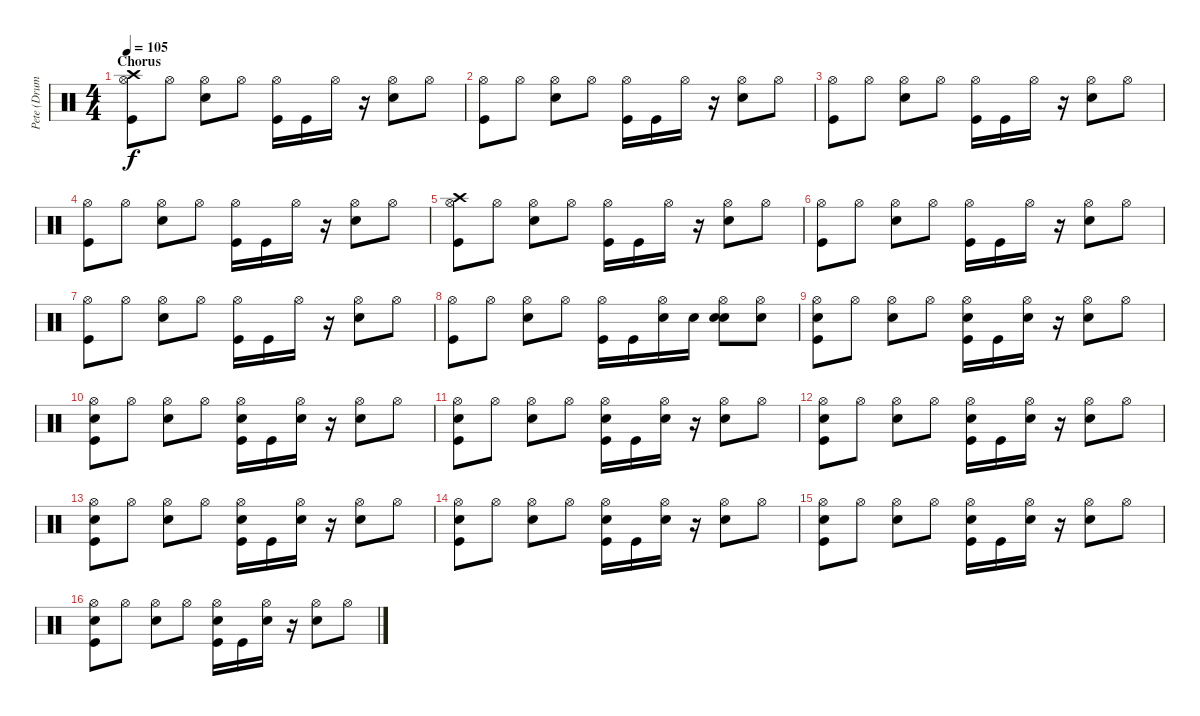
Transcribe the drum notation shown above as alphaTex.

\track ("Pete (Drums)" "Pete (Drum") {instrument percussion}
\staff {score}
\articulation defaults
\ts (4 4)
\section ("" "Chorus")
\tempo 105
\clef neutral
\ks c
("Hi-Hat (open)" "Crash high (hit)" "Kick (hit)").8{dy f} "Hi-Hat (open)".8 ("Hi-Hat (open)" "Snare (hit) 2").8 "Hi-Hat (open)".8 ("Hi-Hat (open)" "Kick (hit)").16 "Kick (hit)".16 "Hi-Hat (open)".16 r.16 ("Hi-Hat (open)" "Snare (hit) 2").8 "Hi-Hat (open)".8 |
("Hi-Hat (open)" "Kick (hit)").8 "Hi-Hat (open)".8 ("Hi-Hat (open)" "Snare (hit) 2").8 "Hi-Hat (open)".8 ("Hi-Hat (open)" "Kick (hit)").16 "Kick (hit)".16 "Hi-Hat (open)".16 r.16 ("Hi-Hat (open)" "Snare (hit) 2").8 "Hi-Hat (open)".8 |
("Hi-Hat (open)" "Kick (hit)").8 "Hi-Hat (open)".8 ("Hi-Hat (open)" "Snare (hit) 2").8 "Hi-Hat (open)".8 ("Hi-Hat (open)" "Kick (hit)").16 "Kick (hit)".16 "Hi-Hat (open)".16 r.16 ("Hi-Hat (open)" "Snare (hit) 2").8 "Hi-Hat (open)".8 |
("Hi-Hat (open)" "Kick (hit)").8 "Hi-Hat (open)".8 ("Hi-Hat (open)" "Snare (hit) 2").8 "Hi-Hat (open)".8 ("Hi-Hat (open)" "Kick (hit)").16 "Kick (hit)".16 "Hi-Hat (open)".16 r.16 ("Hi-Hat (open)" "Snare (hit) 2").8 "Hi-Hat (open)".8 |
("Hi-Hat (open)" "Crash high (hit)" "Kick (hit)").8 "Hi-Hat (open)".8 ("Hi-Hat (open)" "Snare (hit) 2").8 "Hi-Hat (open)".8 ("Hi-Hat (open)" "Kick (hit)").16 "Kick (hit)".16 "Hi-Hat (open)".16 r.16 ("Hi-Hat (open)" "Snare (hit) 2").8 "Hi-Hat (open)".8 |
("Hi-Hat (open)" "Kick (hit)").8 "Hi-Hat (open)".8 ("Hi-Hat (open)" "Snare (hit) 2").8 "Hi-Hat (open)".8 ("Hi-Hat (open)" "Kick (hit)").16 "Kick (hit)".16 "Hi-Hat (open)".16 r.16 ("Hi-Hat (open)" "Snare (hit) 2").8 "Hi-Hat (open)".8 |
("Hi-Hat (open)" "Kick (hit)").8 "Hi-Hat (open)".8 ("Hi-Hat (open)" "Snare (hit) 2").8 "Hi-Hat (open)".8 ("Hi-Hat (open)" "Kick (hit)").16 "Kick (hit)".16 "Hi-Hat (open)".16 r.16 ("Hi-Hat (open)" "Snare (hit) 2").8 "Hi-Hat (open)".8 |
("Hi-Hat (open)" "Kick (hit)").8 "Hi-Hat (open)".8 ("Hi-Hat (open)" "Snare (hit) 2").8 "Hi-Hat (open)".8 ("Hi-Hat (open)" "Kick (hit)").16 "Kick (hit)".16 ("Hi-Hat (open)" "Snare (hit) 2").16 "Snare (hit) 2".16 ("Hi-Hat (open)" "Snare (hit) 2" "Snare (hit) 2").8 ("Hi-Hat (open)" "Snare (hit) 2").8 |
("Hi-Hat (open)" "Snare (hit) 2" "Kick (hit)").8 "Hi-Hat (open)".8 ("Hi-Hat (open)" "Snare (hit) 2").8 "Hi-Hat (open)".8 ("Hi-Hat (open)" "Snare (hit) 2" "Kick (hit)").16 "Kick (hit)".16 ("Hi-Hat (open)" "Snare (hit) 2").16 r.16 ("Hi-Hat (open)" "Snare (hit) 2").8 "Hi-Hat (open)".8 |
("Hi-Hat (open)" "Snare (hit) 2" "Kick (hit)").8 "Hi-Hat (open)".8 ("Hi-Hat (open)" "Snare (hit) 2").8 "Hi-Hat (open)".8 ("Hi-Hat (open)" "Snare (hit) 2" "Kick (hit)").16 "Kick (hit)".16 ("Hi-Hat (open)" "Snare (hit) 2").16 r.16 ("Hi-Hat (open)" "Snare (hit) 2").8 "Hi-Hat (open)".8 |
("Hi-Hat (open)" "Snare (hit) 2" "Kick (hit)").8 "Hi-Hat (open)".8 ("Hi-Hat (open)" "Snare (hit) 2").8 "Hi-Hat (open)".8 ("Hi-Hat (open)" "Snare (hit) 2" "Kick (hit)").16 "Kick (hit)".16 ("Hi-Hat (open)" "Snare (hit) 2").16 r.16 ("Hi-Hat (open)" "Snare (hit) 2").8 "Hi-Hat (open)".8 |
("Hi-Hat (open)" "Snare (hit) 2" "Kick (hit)").8 "Hi-Hat (open)".8 ("Hi-Hat (open)" "Snare (hit) 2").8 "Hi-Hat (open)".8 ("Hi-Hat (open)" "Snare (hit) 2" "Kick (hit)").16 "Kick (hit)".16 ("Hi-Hat (open)" "Snare (hit) 2").16 r.16 ("Hi-Hat (open)" "Snare (hit) 2").8 "Hi-Hat (open)".8 |
("Hi-Hat (open)" "Snare (hit) 2" "Kick (hit)").8 "Hi-Hat (open)".8 ("Hi-Hat (open)" "Snare (hit) 2").8 "Hi-Hat (open)".8 ("Hi-Hat (open)" "Snare (hit) 2" "Kick (hit)").16 "Kick (hit)".16 ("Hi-Hat (open)" "Snare (hit) 2").16 r.16 ("Hi-Hat (open)" "Snare (hit) 2").8 "Hi-Hat (open)".8 |
("Hi-Hat (open)" "Snare (hit) 2" "Kick (hit)").8 "Hi-Hat (open)".8 ("Hi-Hat (open)" "Snare (hit) 2").8 "Hi-Hat (open)".8 ("Hi-Hat (open)" "Snare (hit) 2" "Kick (hit)").16 "Kick (hit)".16 ("Hi-Hat (open)" "Snare (hit) 2").16 r.16 ("Hi-Hat (open)" "Snare (hit) 2").8 "Hi-Hat (open)".8 |
("Hi-Hat (open)" "Snare (hit) 2" "Kick (hit)").8 "Hi-Hat (open)".8 ("Hi-Hat (open)" "Snare (hit) 2").8 "Hi-Hat (open)".8 ("Hi-Hat (open)" "Snare (hit) 2" "Kick (hit)").16 "Kick (hit)".16 ("Hi-Hat (open)" "Snare (hit) 2").16 r.16 ("Hi-Hat (open)" "Snare (hit) 2").8 "Hi-Hat (open)".8 |
("Hi-Hat (open)" "Snare (hit) 2" "Kick (hit)").8 "Hi-Hat (open)".8 ("Hi-Hat (open)" "Snare (hit) 2").8 "Hi-Hat (open)".8 ("Hi-Hat (open)" "Snare (hit) 2" "Kick (hit)").16 "Kick (hit)".16 ("Hi-Hat (open)" "Snare (hit) 2").16 r.16 ("Hi-Hat (open)" "Snare (hit) 2").8 "Hi-Hat (open)".8
